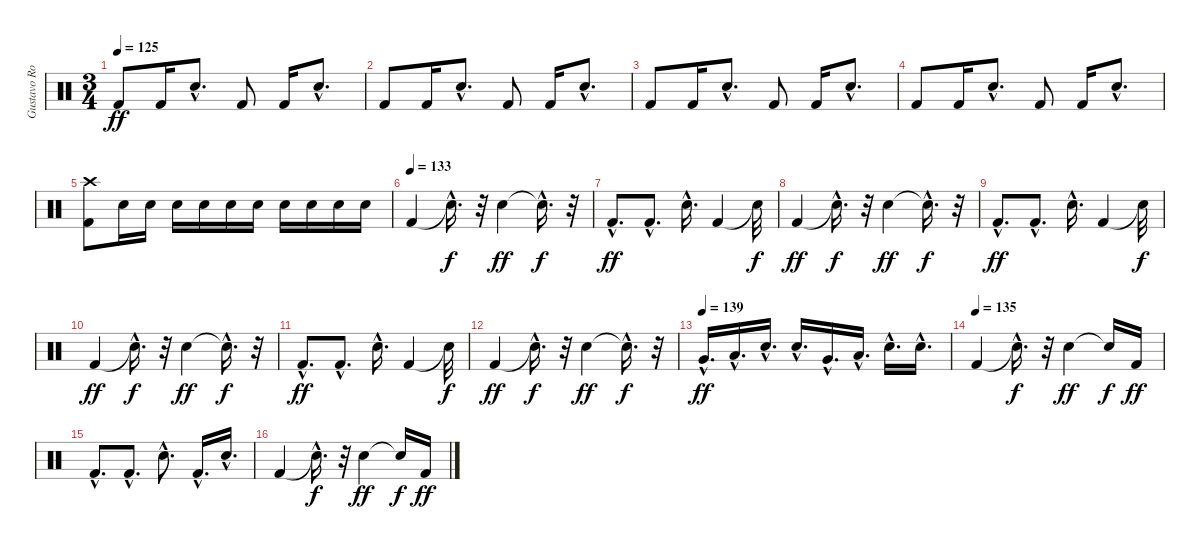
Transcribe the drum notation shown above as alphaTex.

\track ("Gustavo Rowek 2" "Gustavo Ro") {instrument percussion}
\staff {score}
\articulation defaults
\ts (3 4)
\tempo 125
\clef neutral
\ks c "Kick (hit) 2".8{dy ff} "Kick (hit) 2".16 "Snare (hit) 2"{hac}.8{d} "Kick (hit) 2".8 "Kick (hit) 2".16 "Snare (hit) 2"{hac}.8{d}
|
"Kick (hit) 2".8 "Kick (hit) 2".16 "Snare (hit) 2"{hac}.8{d} "Kick (hit) 2".8 "Kick (hit) 2".16 "Snare (hit) 2"{hac}.8{d} |
"Kick (hit) 2".8 "Kick (hit) 2".16 "Snare (hit) 2"{hac}.8{d} "Kick (hit) 2".8 "Kick (hit) 2".16 "Snare (hit) 2"{hac}.8{d} |
"Kick (hit) 2".8 "Kick (hit) 2".16 "Snare (hit) 2"{hac}.8{d} "Kick (hit) 2".8 "Kick (hit) 2".16 "Snare (hit) 2"{hac}.8{d} |
("Kick (hit) 2" "Crash high (hit)").8 "Electric Snare (hit)".16 "Electric Snare (hit)".16 "Electric Snare (hit)".16 "Electric Snare (hit)".16 "Electric Snare (hit)".16 "Electric Snare (hit)".16 "Electric Snare (hit)".16 "Electric Snare (hit)".16 "Electric Snare (hit)".16 "Electric Snare (hit)".16 |
\tempo (133)
"Kick (hit) 2".4 "Snare (hit)"{hac t}.16{d dy f} r.32 "Snare (hit) 2".4{dy ff} "Snare (hit)"{hac t}.16{d dy f} r.32 |
"Kick (hit) 2"{hac}.8{d dy ff} "Kick (hit) 2"{hac}.8{d} "Snare (hit) 2"{hac}.16{d} "Kick (hit) 2".4 "Snare (hit)"{t}.32{dy f} |
"Kick (hit) 2".4{dy ff} "Snare (hit)"{hac t}.16{d dy f} r.32 "Snare (hit) 2".4{dy ff} "Snare (hit)"{hac t}.16{d dy f} r.32 |
"Kick (hit) 2"{hac}.8{d dy ff} "Kick (hit) 2"{hac}.8{d} "Snare (hit) 2"{hac}.16{d} "Kick (hit) 2".4 "Snare (hit)"{t}.32{dy f} |
"Kick (hit) 2".4{dy ff} "Snare (hit)"{hac t}.16{d dy f} r.32 "Snare (hit) 2".4{dy ff} "Snare (hit)"{hac t}.16{d dy f} r.32 |
"Kick (hit) 2"{hac}.8{d dy ff} "Kick (hit) 2"{hac}.8{d} "Snare (hit) 2"{hac}.16{d} "Kick (hit) 2".4 "Snare (hit)"{t}.32{dy f} |
"Kick (hit) 2".4{dy ff} "Snare (hit)"{hac t}.16{d dy f} r.32 "Snare (hit) 2".4{dy ff} "Snare (hit)"{hac t}.16{d dy f} r.32 |
\tempo (139)
"Very Low Tom (hit)"{hac}.16{d dy ff} "Low Floor Tom (hit)"{hac}.16{d} "Electric Snare (hit)"{hac}.16{d} "Snare (hit) 2"{hac}.16{d} "Very Low Tom (hit)"{hac}.16{d} "Low Floor Tom (hit)"{hac}.16{d} "Electric Snare (hit)"{hac}.16{d} "Snare (hit) 2"{hac}.16{d} |
\tempo (135)
"Kick (hit) 2".4 "Snare (hit)"{hac t}.16{d dy f} r.32 "Snare (hit) 2".4{dy ff} "Snare (hit)"{t}.16{dy f} "Kick (hit) 2".16{dy ff} |
"Kick (hit) 2"{hac}.8{d} "Kick (hit) 2"{hac}.8{d} "Snare (hit) 2"{hac}.8{d} "Kick (hit) 2"{hac}.16{d} "Snare (hit) 2"{hac}.16{d} |
"Kick (hit) 2".4 "Snare (hit)"{hac t}.16{d dy f} r.32 "Snare (hit) 2".4{dy ff} "Snare (hit)"{t}.16{dy f} "Kick (hit) 2".16{dy ff}
